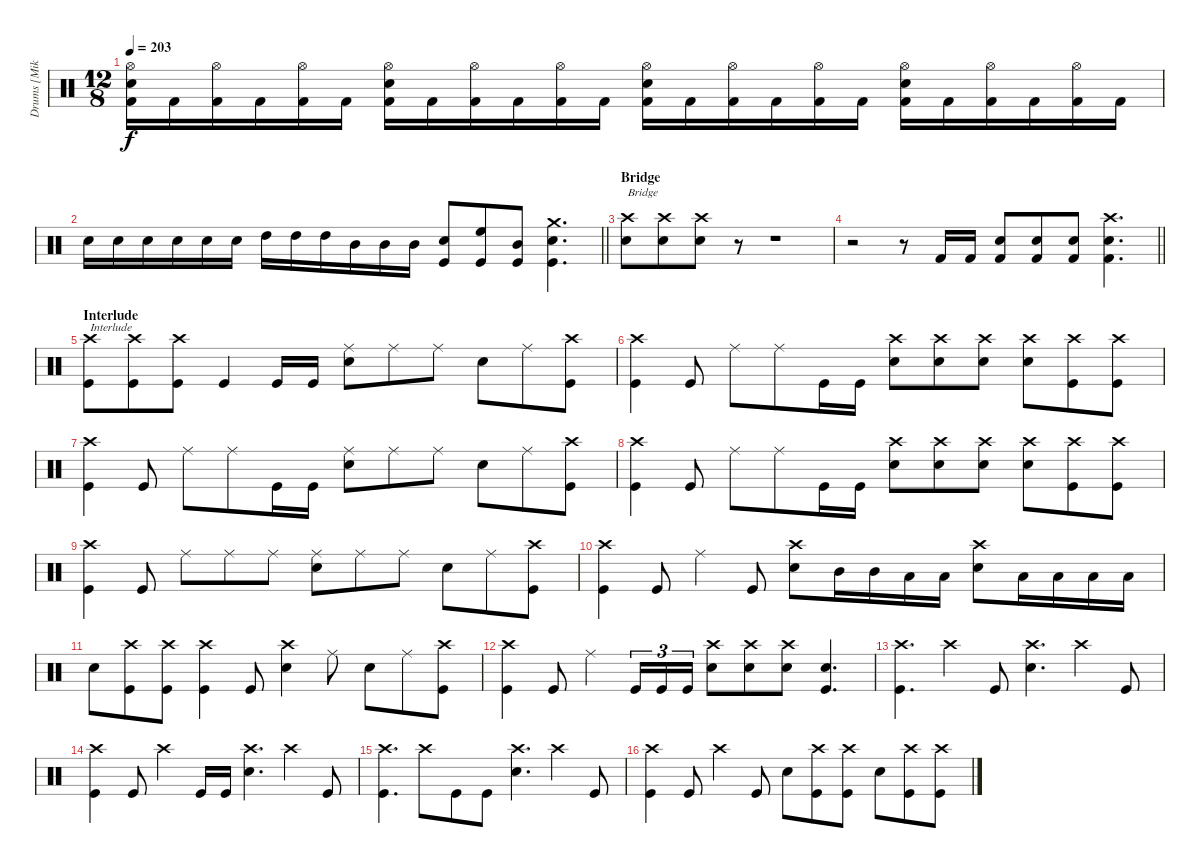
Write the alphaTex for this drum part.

\track ("Drums [Mike Smith]" "Drums [Mik") {instrument percussion}
\staff {score}
\articulation defaults
\ts (12 8)
\tempo 203
\clef neutral
\ks c
("Hi-Hat (open)" "Electric Snare (hit)" "Kick (hit) 2").16{dy f} "Kick (hit) 2".16 ("Hi-Hat (open)" "Kick (hit) 2").16 "Kick (hit) 2".16 ("Hi-Hat (open)" "Kick (hit) 2").16 "Kick (hit) 2".16 ("Hi-Hat (open)" "Electric Snare (hit)" "Kick (hit) 2").16 "Kick (hit) 2".16 ("Hi-Hat (open)" "Kick (hit) 2").16 "Kick (hit) 2".16 ("Hi-Hat (open)" "Kick (hit) 2").16 "Kick (hit) 2".16 ("Hi-Hat (open)" "Electric Snare (hit)" "Kick (hit) 2").16 "Kick (hit) 2".16 ("Hi-Hat (open)" "Kick (hit) 2").16 "Kick (hit) 2".16 ("Hi-Hat (open)" "Kick (hit) 2").16 "Kick (hit) 2".16 ("Hi-Hat (open)" "Electric Snare (hit)" "Kick (hit) 2").16 "Kick (hit) 2".16 ("Hi-Hat (open)" "Kick (hit) 2").16 "Kick (hit) 2".16 ("Hi-Hat (open)" "Kick (hit) 2").16 "Kick (hit) 2".16 |
\barLineRight lightlight "Electric Snare (hit)".16 "Electric Snare (hit)".16 "Electric Snare (hit)".16 "Electric Snare (hit)".16 "Electric Snare (hit)".16 "Electric Snare (hit)".16 "High Tom (hit)".16 "High Tom (hit)".16 "High Tom (hit)".16 "Mid Tom (hit)".16 "Mid Tom (hit)".16 "Mid Tom (hit)".16
("Electric Snare (hit)" "Kick (hit)").8 ("High Floor Tom (hit)" "Kick (hit)").8 ("Mid Tom (hit)" "Kick (hit)").8 ("Crash medium (hit)" "Electric Snare (hit)" "Kick (hit)").4{d} |
\section ("" "Bridge")
("Electric Snare (hit)" "Crash high (hit)").8{txt "Bridge"} ("Electric Snare (hit)" "Crash high (hit)").8 ("Electric Snare (hit)" "Crash high (hit)").8 r.8 r.1 |
\barLineRight lightlight
r.2 r.8 "Kick (hit) 2".16 "Kick (hit) 2".16 ("Electric Snare (hit)" "Kick (hit) 2").8 ("Electric Snare (hit)" "Kick (hit) 2").8 ("Electric Snare (hit)" "Kick (hit) 2").8 ("Crash high (hit)" "Electric Snare (hit)" "Kick (hit) 2").4{d} |
\section ("" "Interlude")
("Crash high (hit)" "Kick (hit)").8{txt "Interlude"} ("Crash high (hit)" "Kick (hit)").8 ("Crash high (hit)" "Kick (hit)").8 "Kick (hit)".4 "Kick (hit)".16 "Kick (hit)".16 ("Ride (middle)" "Electric Snare (hit)").8 "Ride (middle)".8 "Ride (middle)".8 "Electric Snare (hit)".8 "Ride (middle)".8 ("Kick (hit)" "Crash high (hit)").8 |
("Crash high (hit)" "Kick (hit)").4 "Kick (hit)".8 "Ride (middle)".8 "Ride (middle)".8 "Kick (hit)".16 "Kick (hit)".16 ("Crash high (hit)" "Electric Snare (hit)").8 ("Crash high (hit)" "Electric Snare (hit)").8 ("Crash high (hit)" "Electric Snare (hit)").8 ("Crash high (hit)" "Electric Snare (hit)").8 ("Crash high (hit)" "Kick (hit)").8 ("Crash high (hit)" "Kick (hit)").8 |
("Crash high (hit)" "Kick (hit)").4 "Kick (hit)".8 "Ride (middle)".8 "Ride (middle)".8 "Kick (hit)".16 "Kick (hit)".16 ("Ride (middle)" "Electric Snare (hit)").8 "Ride (middle)".8 "Ride (middle)".8 "Electric Snare (hit)".8 "Ride (middle)".8 ("Kick (hit)" "Crash high (hit)").8 |
("Crash high (hit)" "Kick (hit)").4 "Kick (hit)".8 "Ride (middle)".8 "Ride (middle)".8 "Kick (hit)".16 "Kick (hit)".16 ("Crash high (hit)" "Electric Snare (hit)").8 ("Crash high (hit)" "Electric Snare (hit)").8 ("Crash high (hit)" "Electric Snare (hit)").8 ("Crash high (hit)" "Electric Snare (hit)").8 ("Crash high (hit)" "Kick (hit)").8 ("Crash high (hit)" "Kick (hit)").8 |
("Crash high (hit)" "Kick (hit)").4 "Kick (hit)".8 "Ride (middle)".8 "Ride (middle)".8 "Ride (middle)".8 ("Ride (middle)" "Electric Snare (hit)").8 "Ride (middle)".8 "Ride (middle)".8 "Electric Snare (hit)".8 "Ride (middle)".8 ("Kick (hit)" "Crash high (hit)").8 |
("Crash high (hit)" "Kick (hit)").4 "Kick (hit)".8 "Ride (middle)".4 "Kick (hit)".8 ("Crash high (hit)" "Electric Snare (hit)").8 "Mid Tom (hit)".16 "Mid Tom (hit)".16 "Low Tom (hit)".16 "Low Tom (hit)".16 ("Crash high (hit)" "Electric Snare (hit)").8 "Low Tom (hit)".16 "Low Tom (hit)".16 "Low Floor Tom (hit)".16 "Low Floor Tom (hit)".16 |
"Electric Snare (hit)".8 ("Crash high (hit)" "Kick (hit)").8 ("Crash high (hit)" "Kick (hit)").8 ("Crash high (hit)" "Kick (hit)").4 "Kick (hit)".8 ("Crash high (hit)" "Electric Snare (hit)").4 "Ride (middle)".8 "Electric Snare (hit)".8 "Ride (middle)".8 ("Crash high (hit)" "Kick (hit)").8 |
("Crash high (hit)" "Kick (hit)").4 "Kick (hit)".8 "Ride (middle)".4 "Kick (hit)".16{tu (3 2)} "Kick (hit)".16{tu (3 2)} "Kick (hit)".16{tu (3 2)} ("Electric Snare (hit)" "Crash high (hit)").8 ("Electric Snare (hit)" "Crash high (hit)").8 ("Electric Snare (hit)" "Crash high (hit)").8 ("Electric Snare (hit)" "Kick (hit)").4{d} |
("Crash high (hit)" "Kick (hit)").4{d} "Crash high (hit)".4 "Kick (hit)".8 ("Crash high (hit)" "Electric Snare (hit)").4{d} "Crash high (hit)".4 "Kick (hit)".8 |
("Crash high (hit)" "Kick (hit)").4 "Kick (hit)".8 "Crash high (hit)".4 "Kick (hit)".16 "Kick (hit)".16 ("Crash high (hit)" "Electric Snare (hit)").4{d} "Crash high (hit)".4 "Kick (hit)".8 |
("Crash high (hit)" "Kick (hit)").4{d} "Crash high (hit)".8 "Kick (hit)".8 "Kick (hit)".8 ("Crash high (hit)" "Electric Snare (hit)").4{d} "Crash high (hit)".4 "Kick (hit)".8 |
("Crash high (hit)" "Kick (hit)").4 "Kick (hit)".8 "Crash high (hit)".4 "Kick (hit)".8 "Electric Snare (hit)".8 ("Crash high (hit)" "Kick (hit)").8 ("Crash high (hit)" "Kick (hit)").8 "Electric Snare (hit)".8 ("Crash high (hit)" "Kick (hit)").8 ("Crash high (hit)" "Kick (hit)").8
